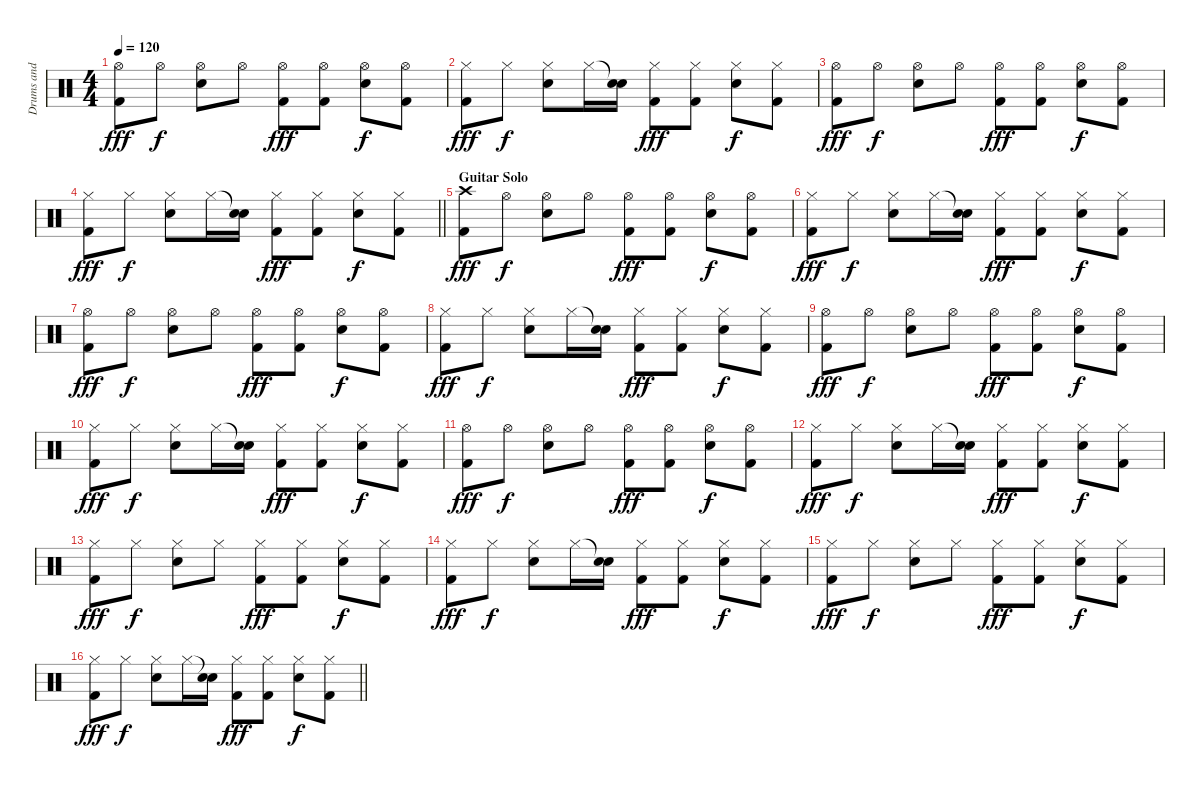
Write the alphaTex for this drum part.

\track ("Drums and Percussion" "Drums and ") {instrument percussion}
\staff {score}
\articulation defaults
\ts (4 4)
\tempo 120
\clef neutral
\ks c
("Hi-Hat (open)" "Kick (hit) 2").8{dy fff} "Hi-Hat (open)".8{dy f} ("Hi-Hat (open)" "Snare (hit) 2").8 "Hi-Hat (open)".8 ("Hi-Hat (open)" "Kick (hit) 2").8{dy fff} ("Hi-Hat (open)" "Kick (hit) 2").8 ("Hi-Hat (open)" "Snare (hit) 2").8{dy f} ("Hi-Hat (open)" "Kick (hit) 2").8 |
("Hi-Hat (closed)" "Kick (hit) 2").8{dy fff} "Hi-Hat (closed)".8{dy f} ("Hi-Hat (closed)" "Snare (hit) 2").8 "Hi-Hat (closed)".16 ("Snare (hit)"{t} "Snare (hit) 2").16 ("Hi-Hat (closed)" "Kick (hit) 2").8{dy fff} ("Hi-Hat (closed)" "Kick (hit) 2").8 ("Hi-Hat (closed)" "Snare (hit) 2").8{dy f} ("Hi-Hat (closed)" "Kick (hit) 2").8 |
("Hi-Hat (open)" "Kick (hit) 2").8{dy fff} "Hi-Hat (open)".8{dy f} ("Hi-Hat (open)" "Snare (hit) 2").8 "Hi-Hat (open)".8 ("Hi-Hat (open)" "Kick (hit) 2").8{dy fff} ("Hi-Hat (open)" "Kick (hit) 2").8 ("Hi-Hat (open)" "Snare (hit) 2").8{dy f} ("Hi-Hat (open)" "Kick (hit) 2").8 |
\barLineRight lightlight
("Hi-Hat (closed)" "Kick (hit) 2").8{dy fff} "Hi-Hat (closed)".8{dy f} ("Hi-Hat (closed)" "Snare (hit) 2").8 "Hi-Hat (closed)".16 ("Snare (hit)"{t} "Snare (hit) 2").16 ("Hi-Hat (closed)" "Kick (hit) 2").8{dy fff} ("Hi-Hat (closed)" "Kick (hit) 2").8 ("Hi-Hat (closed)" "Snare (hit) 2").8{dy f} ("Hi-Hat (closed)" "Kick (hit) 2").8 |
\section ("" "Guitar Solo")
("Crash high (hit)" "Kick (hit) 2").8{dy fff} "Hi-Hat (open)".8{dy f} ("Hi-Hat (open)" "Snare (hit) 2").8 "Hi-Hat (open)".8 ("Hi-Hat (open)" "Kick (hit) 2").8{dy fff} ("Hi-Hat (open)" "Kick (hit) 2").8 ("Hi-Hat (open)" "Snare (hit) 2").8{dy f} ("Hi-Hat (open)" "Kick (hit) 2").8 |
("Hi-Hat (closed)" "Kick (hit) 2").8{dy fff} "Hi-Hat (closed)".8{dy f} ("Hi-Hat (closed)" "Snare (hit) 2").8 "Hi-Hat (closed)".16 ("Snare (hit)"{t} "Snare (hit) 2").16 ("Hi-Hat (closed)" "Kick (hit) 2").8{dy fff} ("Hi-Hat (closed)" "Kick (hit) 2").8 ("Hi-Hat (closed)" "Snare (hit) 2").8{dy f} ("Hi-Hat (closed)" "Kick (hit) 2").8 |
("Hi-Hat (open)" "Kick (hit) 2").8{dy fff} "Hi-Hat (open)".8{dy f} ("Hi-Hat (open)" "Snare (hit) 2").8 "Hi-Hat (open)".8 ("Hi-Hat (open)" "Kick (hit) 2").8{dy fff} ("Hi-Hat (open)" "Kick (hit) 2").8 ("Hi-Hat (open)" "Snare (hit) 2").8{dy f} ("Hi-Hat (open)" "Kick (hit) 2").8 |
("Hi-Hat (closed)" "Kick (hit) 2").8{dy fff} "Hi-Hat (closed)".8{dy f} ("Hi-Hat (closed)" "Snare (hit) 2").8 "Hi-Hat (closed)".16 ("Snare (hit)"{t} "Snare (hit) 2").16 ("Hi-Hat (closed)" "Kick (hit) 2").8{dy fff} ("Hi-Hat (closed)" "Kick (hit) 2").8 ("Hi-Hat (closed)" "Snare (hit) 2").8{dy f} ("Hi-Hat (closed)" "Kick (hit) 2").8 |
("Hi-Hat (open)" "Kick (hit) 2").8{dy fff} "Hi-Hat (open)".8{dy f} ("Hi-Hat (open)" "Snare (hit) 2").8 "Hi-Hat (open)".8 ("Hi-Hat (open)" "Kick (hit) 2").8{dy fff} ("Hi-Hat (open)" "Kick (hit) 2").8 ("Hi-Hat (open)" "Snare (hit) 2").8{dy f} ("Hi-Hat (open)" "Kick (hit) 2").8 |
("Hi-Hat (closed)" "Kick (hit) 2").8{dy fff} "Hi-Hat (closed)".8{dy f} ("Hi-Hat (closed)" "Snare (hit) 2").8 "Hi-Hat (closed)".16 ("Snare (hit)"{t} "Snare (hit) 2").16 ("Hi-Hat (closed)" "Kick (hit) 2").8{dy fff} ("Hi-Hat (closed)" "Kick (hit) 2").8 ("Hi-Hat (closed)" "Snare (hit) 2").8{dy f} ("Hi-Hat (closed)" "Kick (hit) 2").8 |
("Hi-Hat (open)" "Kick (hit) 2").8{dy fff} "Hi-Hat (open)".8{dy f} ("Hi-Hat (open)" "Snare (hit) 2").8 "Hi-Hat (open)".8 ("Hi-Hat (open)" "Kick (hit) 2").8{dy fff} ("Hi-Hat (open)" "Kick (hit) 2").8 ("Hi-Hat (open)" "Snare (hit) 2").8{dy f} ("Hi-Hat (open)" "Kick (hit) 2").8 |
("Hi-Hat (closed)" "Kick (hit) 2").8{dy fff} "Hi-Hat (closed)".8{dy f} ("Hi-Hat (closed)" "Snare (hit) 2").8 "Hi-Hat (closed)".16 ("Snare (hit)"{t} "Snare (hit) 2").16 ("Hi-Hat (closed)" "Kick (hit) 2").8{dy fff} ("Hi-Hat (closed)" "Kick (hit) 2").8 ("Hi-Hat (closed)" "Snare (hit) 2").8{dy f} ("Hi-Hat (closed)" "Kick (hit) 2").8 |
("Hi-Hat (closed)" "Kick (hit) 2").8{dy fff} "Hi-Hat (closed)".8{dy f} ("Hi-Hat (closed)" "Snare (hit) 2").8 "Hi-Hat (closed)".8 ("Hi-Hat (closed)" "Kick (hit) 2").8{dy fff} ("Hi-Hat (closed)" "Kick (hit) 2").8 ("Hi-Hat (closed)" "Snare (hit) 2").8{dy f} ("Hi-Hat (closed)" "Kick (hit) 2").8 |
("Hi-Hat (closed)" "Kick (hit) 2").8{dy fff} "Hi-Hat (closed)".8{dy f} ("Hi-Hat (closed)" "Snare (hit) 2").8 "Hi-Hat (closed)".16 ("Snare (hit)"{t} "Snare (hit) 2").16 ("Hi-Hat (closed)" "Kick (hit) 2").8{dy fff} ("Hi-Hat (closed)" "Kick (hit) 2").8 ("Hi-Hat (closed)" "Snare (hit) 2").8{dy f} ("Hi-Hat (closed)" "Kick (hit) 2").8 |
("Hi-Hat (closed)" "Kick (hit) 2").8{dy fff} "Hi-Hat (closed)".8{dy f} ("Hi-Hat (closed)" "Snare (hit) 2").8 "Hi-Hat (closed)".8 ("Hi-Hat (closed)" "Kick (hit) 2").8{dy fff} ("Hi-Hat (closed)" "Kick (hit) 2").8 ("Hi-Hat (closed)" "Snare (hit) 2").8{dy f} ("Hi-Hat (closed)" "Kick (hit) 2").8 |
\barLineRight lightlight
("Hi-Hat (closed)" "Kick (hit) 2").8{dy fff} "Hi-Hat (closed)".8{dy f} ("Hi-Hat (closed)" "Snare (hit) 2").8 "Hi-Hat (closed)".16 ("Snare (hit)"{t} "Snare (hit) 2").16 ("Hi-Hat (closed)" "Kick (hit) 2").8{dy fff} ("Hi-Hat (closed)" "Kick (hit) 2").8 ("Hi-Hat (closed)" "Snare (hit) 2").8{dy f} ("Hi-Hat (closed)" "Kick (hit) 2").8
